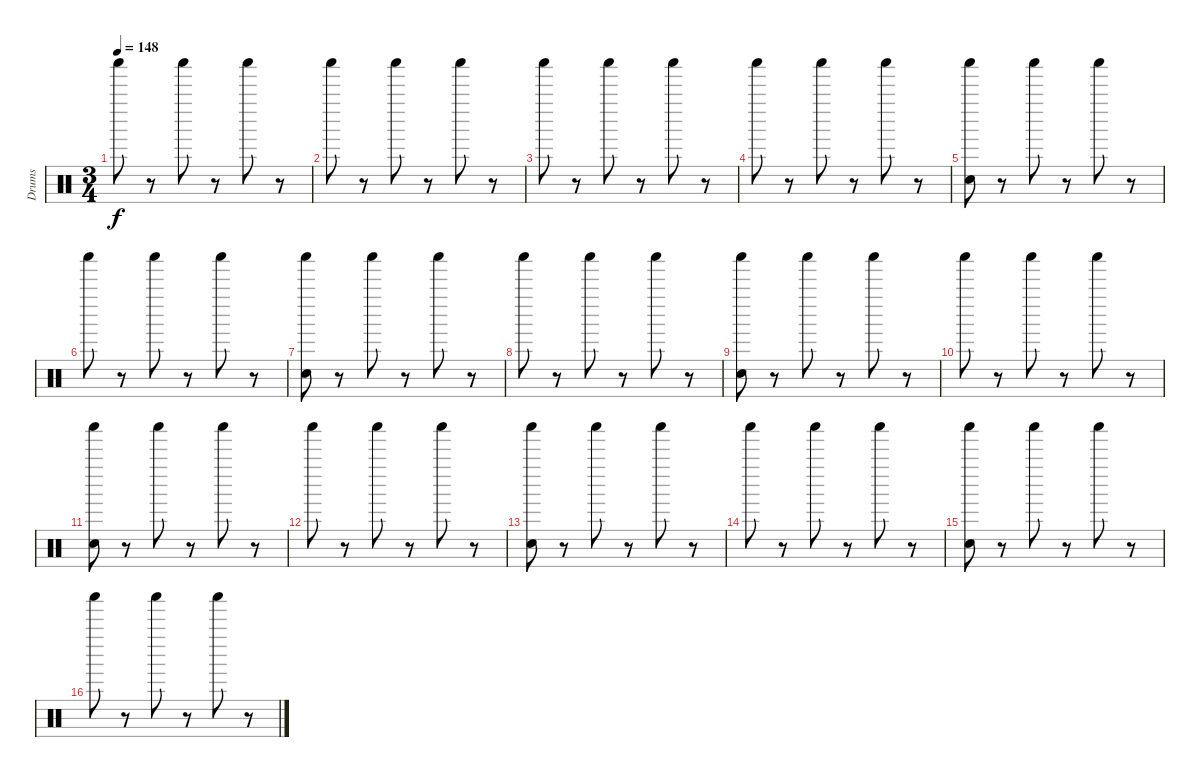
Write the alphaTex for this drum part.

\track ("Drums" "Drums") {instrument percussion bank 1}
\staff {score}
\articulation defaults
\ts (3 4)
\tempo 148
\clef neutral
\ks c "Shaker (hit)".8{dy f}
r.8 "Shaker (hit)".8 r.8 "Shaker (hit)".8 r.8 |
"Shaker (hit)".8 r.8 "Shaker (hit)".8 r.8 "Shaker (hit)".8 r.8 |
"Shaker (hit)".8 r.8 "Shaker (hit)".8 r.8 "Shaker (hit)".8 r.8 |
"Shaker (hit)".8 r.8 "Shaker (hit)".8 r.8 "Shaker (hit)".8 r.8 |
("Shaker (hit)" "Hand Clap (hit)").8 r.8 "Shaker (hit)".8 r.8 "Shaker (hit)".8 r.8 |
"Shaker (hit)".8 r.8 "Shaker (hit)".8 r.8 "Shaker (hit)".8 r.8 |
("Shaker (hit)" "Hand Clap (hit)").8 r.8 "Shaker (hit)".8 r.8 "Shaker (hit)".8 r.8 |
"Shaker (hit)".8 r.8 "Shaker (hit)".8 r.8 "Shaker (hit)".8 r.8 |
("Shaker (hit)" "Hand Clap (hit)").8 r.8 "Shaker (hit)".8 r.8 "Shaker (hit)".8 r.8 |
"Shaker (hit)".8 r.8 "Shaker (hit)".8 r.8 "Shaker (hit)".8 r.8 |
("Shaker (hit)" "Hand Clap (hit)").8 r.8 "Shaker (hit)".8 r.8 "Shaker (hit)".8 r.8 |
"Shaker (hit)".8 r.8 "Shaker (hit)".8 r.8 "Shaker (hit)".8 r.8 |
("Shaker (hit)" "Hand Clap (hit)").8 r.8 "Shaker (hit)".8 r.8 "Shaker (hit)".8 r.8 |
"Shaker (hit)".8 r.8 "Shaker (hit)".8 r.8 "Shaker (hit)".8 r.8 |
("Shaker (hit)" "Hand Clap (hit)").8 r.8 "Shaker (hit)".8 r.8 "Shaker (hit)".8 r.8 |
"Shaker (hit)".8 r.8 "Shaker (hit)".8 r.8 "Shaker (hit)".8 r.8
